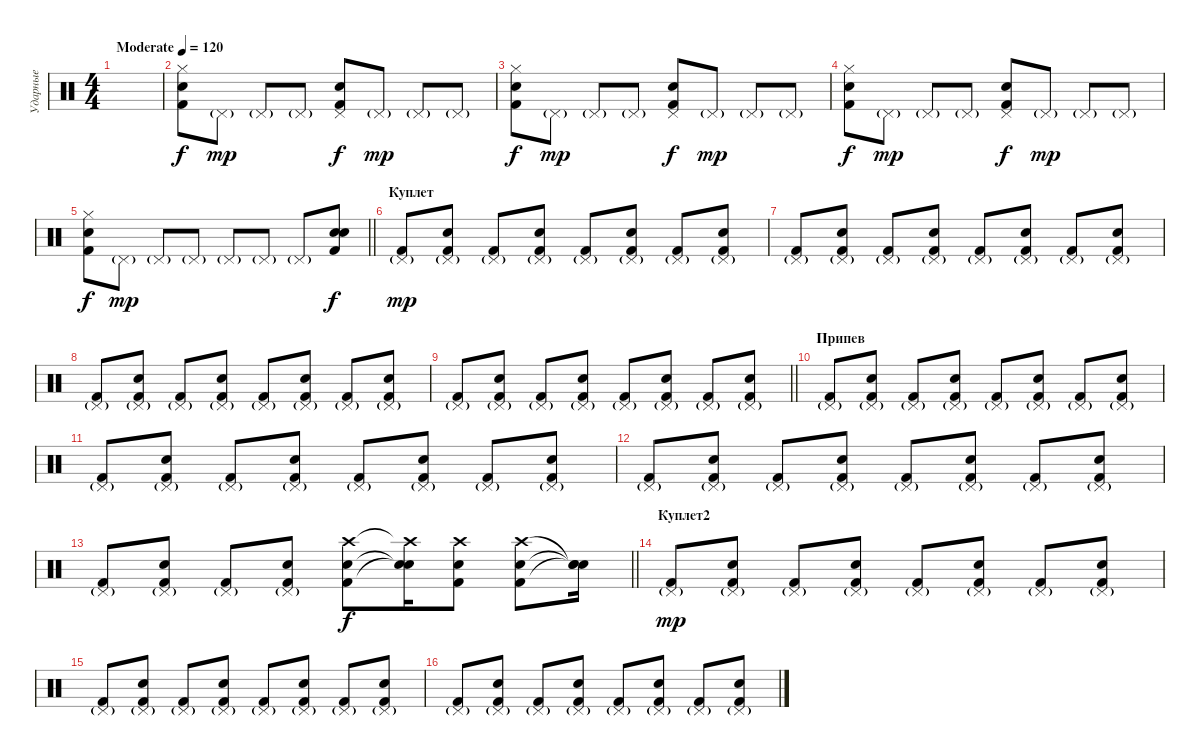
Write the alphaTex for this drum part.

\track ("Ударные" "Ударные") {instrument percussion}
\staff {score}
\articulation defaults
\ts (4 4)
\tempo (120 "Moderate")
\clef neutral
\ks c
|
("Hi-Hat (closed)" "Kick (hit) 2" "Snare (hit) 2").8 "Pedal Hi-Hat (hit)"{g}.8{dy mp} "Pedal Hi-Hat (hit)"{g}.8 "Pedal Hi-Hat (hit)"{g}.8 ("Pedal Hi-Hat (hit)" "Kick (hit) 2" "Snare (hit) 2").8{dy f} "Pedal Hi-Hat (hit)"{g}.8{dy mp} "Pedal Hi-Hat (hit)"{g}.8 "Pedal Hi-Hat (hit)"{g}.8 |
("Hi-Hat (closed)" "Kick (hit) 2" "Snare (hit) 2").8{dy f} "Pedal Hi-Hat (hit)"{g}.8{dy mp} "Pedal Hi-Hat (hit)"{g}.8 "Pedal Hi-Hat (hit)"{g}.8 ("Pedal Hi-Hat (hit)" "Kick (hit) 2" "Snare (hit) 2").8{dy f} "Pedal Hi-Hat (hit)"{g}.8{dy mp} "Pedal Hi-Hat (hit)"{g}.8 "Pedal Hi-Hat (hit)"{g}.8 |
("Hi-Hat (closed)" "Kick (hit) 2" "Snare (hit) 2").8{dy f} "Pedal Hi-Hat (hit)"{g}.8{dy mp} "Pedal Hi-Hat (hit)"{g}.8 "Pedal Hi-Hat (hit)"{g}.8 ("Pedal Hi-Hat (hit)" "Kick (hit) 2" "Snare (hit) 2").8{dy f} "Pedal Hi-Hat (hit)"{g}.8{dy mp} "Pedal Hi-Hat (hit)"{g}.8 "Pedal Hi-Hat (hit)"{g}.8 |
\barLineRight lightlight
("Hi-Hat (closed)" "Kick (hit) 2" "Snare (hit) 2").8{dy f} "Pedal Hi-Hat (hit)"{g}.8{dy mp} "Pedal Hi-Hat (hit)"{g}.8 "Pedal Hi-Hat (hit)"{g}.8 "Pedal Hi-Hat (hit)"{g}.8 "Pedal Hi-Hat (hit)"{g}.8 "Pedal Hi-Hat (hit)"{g}.8 ("Electric Snare (hit)" "Snare (hit) 2" "Kick (hit) 2").8{dy f} |
\section ("" "Куплет")
("Pedal Hi-Hat (hit)"{g} "Kick (hit) 2").8{dy mp} ("Pedal Hi-Hat (hit)"{g} "Electric Snare (hit)" "Kick (hit) 2").8 ("Pedal Hi-Hat (hit)"{g} "Kick (hit) 2").8 ("Pedal Hi-Hat (hit)"{g} "Electric Snare (hit)" "Kick (hit) 2").8 ("Pedal Hi-Hat (hit)"{g} "Kick (hit) 2").8 ("Pedal Hi-Hat (hit)"{g} "Electric Snare (hit)" "Kick (hit) 2").8 ("Pedal Hi-Hat (hit)"{g} "Kick (hit) 2").8 ("Pedal Hi-Hat (hit)"{g} "Electric Snare (hit)" "Kick (hit) 2").8 |
("Pedal Hi-Hat (hit)"{g} "Kick (hit) 2").8 ("Pedal Hi-Hat (hit)"{g} "Electric Snare (hit)" "Kick (hit) 2").8 ("Pedal Hi-Hat (hit)"{g} "Kick (hit) 2").8 ("Pedal Hi-Hat (hit)"{g} "Electric Snare (hit)" "Kick (hit) 2").8 ("Pedal Hi-Hat (hit)"{g} "Kick (hit) 2").8 ("Pedal Hi-Hat (hit)"{g} "Electric Snare (hit)" "Kick (hit) 2").8 ("Pedal Hi-Hat (hit)"{g} "Kick (hit) 2").8 ("Pedal Hi-Hat (hit)"{g} "Electric Snare (hit)" "Kick (hit) 2").8 |
("Pedal Hi-Hat (hit)"{g} "Kick (hit) 2").8 ("Pedal Hi-Hat (hit)"{g} "Electric Snare (hit)" "Kick (hit) 2").8 ("Pedal Hi-Hat (hit)"{g} "Kick (hit) 2").8 ("Pedal Hi-Hat (hit)"{g} "Electric Snare (hit)" "Kick (hit) 2").8 ("Pedal Hi-Hat (hit)"{g} "Kick (hit) 2").8 ("Pedal Hi-Hat (hit)"{g} "Electric Snare (hit)" "Kick (hit) 2").8 ("Pedal Hi-Hat (hit)"{g} "Kick (hit) 2").8 ("Pedal Hi-Hat (hit)"{g} "Electric Snare (hit)" "Kick (hit) 2").8 |
\barLineRight lightlight
("Pedal Hi-Hat (hit)"{g} "Kick (hit) 2").8 ("Pedal Hi-Hat (hit)"{g} "Electric Snare (hit)" "Kick (hit) 2").8 ("Pedal Hi-Hat (hit)"{g} "Kick (hit) 2").8 ("Pedal Hi-Hat (hit)"{g} "Electric Snare (hit)" "Kick (hit) 2").8 ("Pedal Hi-Hat (hit)"{g} "Kick (hit) 2").8 ("Pedal Hi-Hat (hit)"{g} "Electric Snare (hit)" "Kick (hit) 2").8 ("Pedal Hi-Hat (hit)"{g} "Kick (hit) 2").8 ("Pedal Hi-Hat (hit)"{g} "Electric Snare (hit)" "Kick (hit) 2").8 |
\section ("" "Припев")
("Pedal Hi-Hat (hit)"{g} "Kick (hit) 2").8 ("Pedal Hi-Hat (hit)"{g} "Electric Snare (hit)" "Kick (hit) 2").8 ("Pedal Hi-Hat (hit)"{g} "Kick (hit) 2").8 ("Pedal Hi-Hat (hit)"{g} "Electric Snare (hit)" "Kick (hit) 2").8 ("Pedal Hi-Hat (hit)"{g} "Kick (hit) 2").8 ("Pedal Hi-Hat (hit)"{g} "Electric Snare (hit)" "Kick (hit) 2").8 ("Pedal Hi-Hat (hit)"{g} "Kick (hit) 2").8 ("Pedal Hi-Hat (hit)"{g} "Electric Snare (hit)" "Kick (hit) 2").8 |
("Pedal Hi-Hat (hit)"{g} "Kick (hit) 2").8 ("Pedal Hi-Hat (hit)"{g} "Electric Snare (hit)" "Kick (hit) 2").8 ("Pedal Hi-Hat (hit)"{g} "Kick (hit) 2").8 ("Pedal Hi-Hat (hit)"{g} "Electric Snare (hit)" "Kick (hit) 2").8 ("Pedal Hi-Hat (hit)"{g} "Kick (hit) 2").8 ("Pedal Hi-Hat (hit)"{g} "Electric Snare (hit)" "Kick (hit) 2").8 ("Pedal Hi-Hat (hit)"{g} "Kick (hit) 2").8 ("Pedal Hi-Hat (hit)"{g} "Electric Snare (hit)" "Kick (hit) 2").8 |
("Pedal Hi-Hat (hit)"{g} "Kick (hit) 2").8 ("Pedal Hi-Hat (hit)"{g} "Electric Snare (hit)" "Kick (hit) 2").8 ("Pedal Hi-Hat (hit)"{g} "Kick (hit) 2").8 ("Pedal Hi-Hat (hit)"{g} "Electric Snare (hit)" "Kick (hit) 2").8 ("Pedal Hi-Hat (hit)"{g} "Kick (hit) 2").8 ("Pedal Hi-Hat (hit)"{g} "Electric Snare (hit)" "Kick (hit) 2").8 ("Pedal Hi-Hat (hit)"{g} "Kick (hit) 2").8 ("Pedal Hi-Hat (hit)"{g} "Electric Snare (hit)" "Kick (hit) 2").8 |
\barLineRight lightlight
("Pedal Hi-Hat (hit)"{g} "Kick (hit) 2").8 ("Pedal Hi-Hat (hit)"{g} "Electric Snare (hit)" "Kick (hit) 2").8 ("Pedal Hi-Hat (hit)"{g} "Kick (hit) 2").8 ("Pedal Hi-Hat (hit)"{g} "Electric Snare (hit)" "Kick (hit) 2").8 ("Crash high (hit)" "Kick (hit) 2" "Electric Snare (hit)").8{dy f} ("Crash high (hit)"{t} "Snare (hit)"{t} "Snare (hit)"{t}).16 ("Crash high (hit)" "Kick (hit) 2" "Electric Snare (hit)").8 ("Crash high (hit)" "Kick (hit) 2" "Electric Snare (hit)").8 ("Snare (hit)"{t} "Snare (hit)"{t} "Snare (hit)"{t}).16 |
\section ("" "Куплет2")
("Pedal Hi-Hat (hit)"{g} "Kick (hit) 2").8{dy mp} ("Pedal Hi-Hat (hit)"{g} "Electric Snare (hit)" "Kick (hit) 2").8 ("Pedal Hi-Hat (hit)"{g} "Kick (hit) 2").8 ("Pedal Hi-Hat (hit)"{g} "Electric Snare (hit)" "Kick (hit) 2").8 ("Pedal Hi-Hat (hit)"{g} "Kick (hit) 2").8 ("Pedal Hi-Hat (hit)"{g} "Electric Snare (hit)" "Kick (hit) 2").8 ("Pedal Hi-Hat (hit)"{g} "Kick (hit) 2").8 ("Pedal Hi-Hat (hit)"{g} "Electric Snare (hit)" "Kick (hit) 2").8 |
("Pedal Hi-Hat (hit)"{g} "Kick (hit) 2").8 ("Pedal Hi-Hat (hit)"{g} "Electric Snare (hit)" "Kick (hit) 2").8 ("Pedal Hi-Hat (hit)"{g} "Kick (hit) 2").8 ("Pedal Hi-Hat (hit)"{g} "Electric Snare (hit)" "Kick (hit) 2").8 ("Pedal Hi-Hat (hit)"{g} "Kick (hit) 2").8 ("Pedal Hi-Hat (hit)"{g} "Electric Snare (hit)" "Kick (hit) 2").8 ("Pedal Hi-Hat (hit)"{g} "Kick (hit) 2").8 ("Pedal Hi-Hat (hit)"{g} "Electric Snare (hit)" "Kick (hit) 2").8 |
("Pedal Hi-Hat (hit)"{g} "Kick (hit) 2").8 ("Pedal Hi-Hat (hit)"{g} "Electric Snare (hit)" "Kick (hit) 2").8 ("Pedal Hi-Hat (hit)"{g} "Kick (hit) 2").8 ("Pedal Hi-Hat (hit)"{g} "Electric Snare (hit)" "Kick (hit) 2").8 ("Pedal Hi-Hat (hit)"{g} "Kick (hit) 2").8 ("Pedal Hi-Hat (hit)"{g} "Electric Snare (hit)" "Kick (hit) 2").8 ("Pedal Hi-Hat (hit)"{g} "Kick (hit) 2").8 ("Pedal Hi-Hat (hit)"{g} "Electric Snare (hit)" "Kick (hit) 2").8
